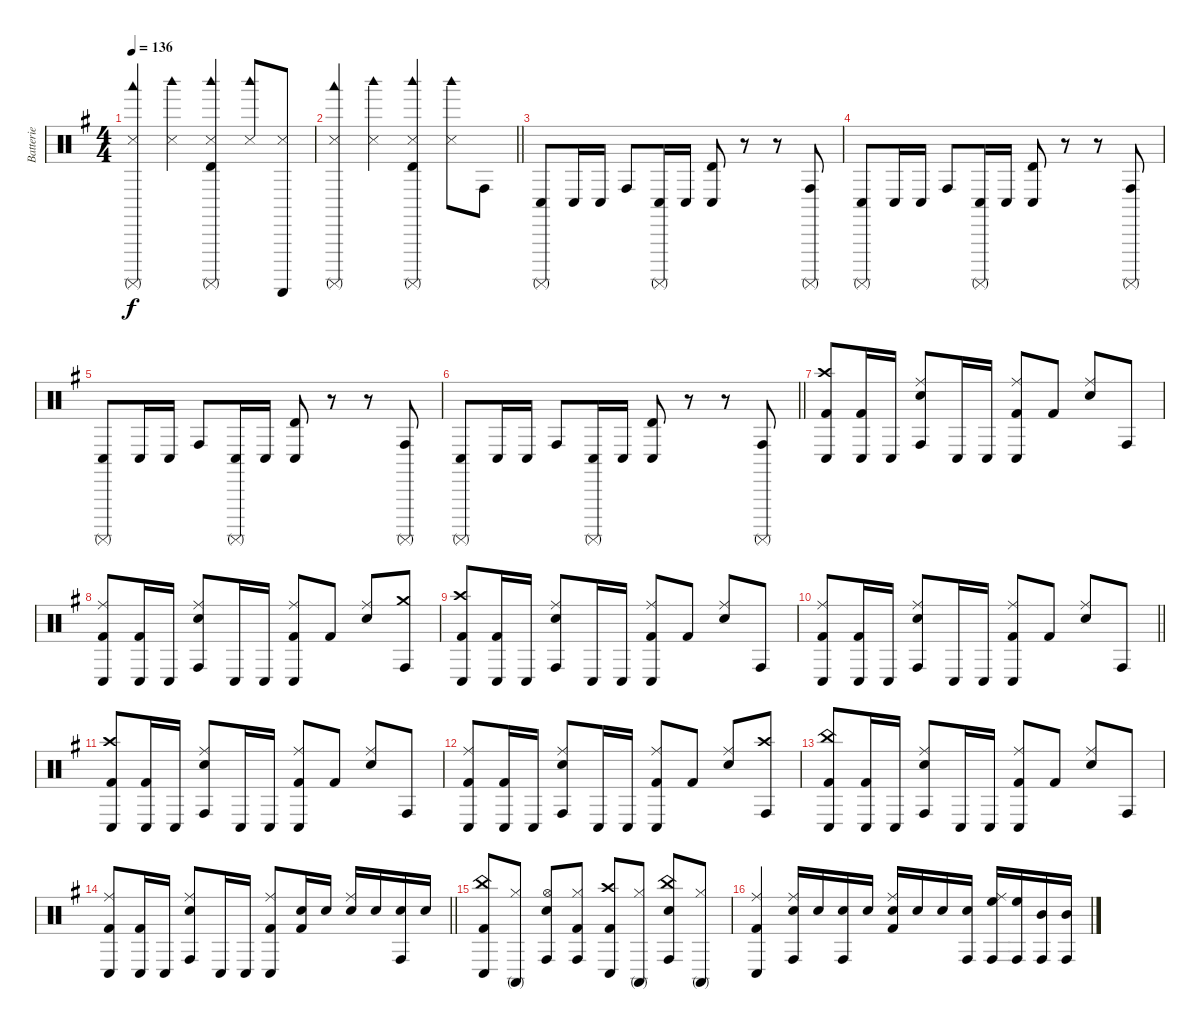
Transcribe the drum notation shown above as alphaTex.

\track ("Batterie" "Batterie") {instrument percussion}
\staff {score}
\articulation defaults
\ts (4 4)
\tempo 136
\clef neutral
\ks g
("Snare (side stick) 3" "Woodblock low (hit)" "Surdo (mute)").4{dy f} ("Snare (side stick) 3" "Woodblock high (hit)").4 ("Snare (side stick) 3" "Woodblock high (hit)" "Timbale high (hit)" "Surdo (mute)").4 ("Snare (side stick) 3" "Woodblock high (hit)").8 ("Snare (side stick) 3" "Guiro (scrap-return)").8 |
\barLineRight lightlight
("Snare (side stick) 3" "Woodblock low (hit)" "Surdo (mute)").4 ("Snare (side stick) 3" "Woodblock high (hit)").4 ("Snare (side stick) 3" "Woodblock high (hit)" "Timbale high (hit)" "Surdo (mute)").4 ("Snare (side stick) 3" "Woodblock high (hit)").8 "Conga high (hit)".8 |
("Conga low (hit)" "Surdo (mute)").8 "Conga low (hit)".16 "Conga low (hit)".16 "Conga high (hit)".8 ("Conga low (hit)" "Surdo (mute)").16 "Conga low (hit)".16 ("Conga low (hit)" "Timbale high (hit)").8 r.8 r.8 ("Conga high (hit)" "Surdo (mute)").8 |
("Conga low (hit)" "Surdo (mute)").8 "Conga low (hit)".16 "Conga low (hit)".16 "Conga high (hit)".8 ("Conga low (hit)" "Surdo (mute)").16 "Conga low (hit)".16 ("Conga low (hit)" "Timbale high (hit)").8 r.8 r.8 ("Conga high (hit)" "Surdo (mute)").8 |
("Conga low (hit)" "Surdo (mute)").8 "Conga low (hit)".16 "Conga low (hit)".16 "Conga high (hit)".8 ("Conga low (hit)" "Surdo (mute)").16 "Conga low (hit)".16 ("Conga low (hit)" "Timbale high (hit)").8 r.8 r.8 ("Conga high (hit)" "Surdo (mute)").8 |
\barLineRight lightlight
("Conga low (hit)" "Surdo (mute)").8 "Conga low (hit)".16 "Conga low (hit)".16 "Conga high (hit)".8 ("Conga low (hit)" "Surdo (mute)").16 "Conga low (hit)".16 ("Conga low (hit)" "Timbale high (hit)").8 r.8 r.8 ("Conga high (hit)" "Surdo (mute)").8 |
("Crash high (hit)" "Conga low (hit)" "Kick (hit) 2").8 ("Conga low (hit)" "Kick (hit) 2").16 "Conga low (hit)".16 ("Ride (middle)" "Conga high (hit)" "Snare (hit) 2").8 "Conga low (hit)".16 "Conga low (hit)".16 ("Ride (middle)" "Conga low (hit)" "Kick (hit) 2").8 "Kick (hit) 2".8 ("Ride (middle)" "Snare (hit) 2").8 "Conga high (hit)".8 |
("Ride (middle)" "Conga low (hit)" "Kick (hit) 2").8 ("Conga low (hit)" "Kick (hit) 2").16 "Conga low (hit)".16 ("Ride (middle)" "Conga high (hit)" "Snare (hit) 2").8 "Conga low (hit)".16 "Conga low (hit)".16 ("Ride (middle)" "Conga low (hit)" "Kick (hit) 2").8 "Kick (hit) 2".8 ("Ride (middle)" "Snare (hit) 2").8 ("Crash medium (hit)" "Conga high (hit)").8 |
("Crash high (hit)" "Conga low (hit)" "Kick (hit) 2").8 ("Conga low (hit)" "Kick (hit) 2").16 "Conga low (hit)".16 ("Ride (middle)" "Conga high (hit)" "Snare (hit) 2").8 "Conga low (hit)".16 "Conga low (hit)".16 ("Ride (middle)" "Conga low (hit)" "Kick (hit) 2").8 "Kick (hit) 2".8 ("Ride (middle)" "Snare (hit) 2").8 "Conga high (hit)".8 |
\barLineRight lightlight
("Ride (middle)" "Conga low (hit)" "Kick (hit) 2").8 ("Conga low (hit)" "Kick (hit) 2").16 "Conga low (hit)".16 ("Ride (middle)" "Conga high (hit)" "Snare (hit) 2").8 "Conga low (hit)".16 "Conga low (hit)".16 ("Ride (middle)" "Conga low (hit)" "Kick (hit) 2").8 "Kick (hit) 2".8 ("Ride (middle)" "Snare (hit) 2").8 "Conga high (hit)".8 |
("Crash high (hit)" "Conga low (hit)" "Kick (hit) 2").8 ("Conga low (hit)" "Kick (hit) 2").16 "Conga low (hit)".16 ("Ride (middle)" "Conga high (hit)" "Snare (hit) 2").8 "Conga low (hit)".16 "Conga low (hit)".16 ("Ride (middle)" "Conga low (hit)" "Kick (hit) 2").8 "Kick (hit) 2".8 ("Ride (middle)" "Snare (hit) 2").8 "Conga high (hit)".8 |
("Ride (middle)" "Conga low (hit)" "Kick (hit) 2").8 ("Conga low (hit)" "Kick (hit) 2").16 "Conga low (hit)".16 ("Ride (middle)" "Conga high (hit)" "Snare (hit) 2").8 "Conga low (hit)".16 "Conga low (hit)".16 ("Ride (middle)" "Conga low (hit)" "Kick (hit) 2").8 "Kick (hit) 2".8 ("Ride (middle)" "Snare (hit) 2").8 ("Crash high (hit)" "Conga high (hit)").8 |
("China (hit)" "Conga low (hit)" "Kick (hit) 2").8 ("Conga low (hit)" "Kick (hit) 2").16 "Conga low (hit)".16 ("Ride (middle)" "Conga high (hit)" "Snare (hit) 2").8 "Conga low (hit)".16 "Conga low (hit)".16 ("Ride (middle)" "Conga low (hit)" "Kick (hit) 2").8 "Kick (hit) 2".8 ("Ride (middle)" "Snare (hit) 2").8 "Conga high (hit)".8 |
\barLineRight lightlight
("Ride (middle)" "Conga low (hit)" "Kick (hit) 2").8 ("Conga low (hit)" "Kick (hit) 2").16 "Conga low (hit)".16 ("Ride (middle)" "Conga high (hit)" "Snare (hit) 2").8 "Conga low (hit)".16 "Conga low (hit)".16 ("Ride (middle)" "Conga low (hit)" "Kick (hit) 2").8 ("Snare (hit) 2" "Kick (hit) 2").16 "Snare (hit) 2".16 ("Ride (middle)" "Snare (hit) 2").16 "Snare (hit) 2".16 ("Conga high (hit)" "Snare (hit) 2").16 "Snare (hit) 2".16 |
("China (hit)" "Conga low (hit)" "Kick (hit) 2").8 ("Hi-Hat (closed)" "Conga high (mute)").8 ("Hi-Hat (open)" "Conga high (hit)" "Snare (hit) 2").8 ("Hi-Hat (closed)" "Conga high (hit)" "Kick (hit) 2").8 ("Crash high (hit)" "Conga low (hit)" "Kick (hit) 2").8 ("Hi-Hat (closed)" "Conga high (mute)").8 ("China (hit)" "Conga high (hit)" "Snare (hit) 2").8 ("Hi-Hat (closed)" "Conga high (mute)").8 |
("Ride (middle)" "Conga low (hit)" "Kick (hit) 2").4 ("Ride (middle)" "Conga high (hit)" "Snare (hit) 2").16 "Snare (hit) 2".16 ("Conga high (hit)" "Snare (hit) 2").16 "Snare (hit) 2".16 ("Ride (middle)" "Snare (hit) 2" "Kick (hit) 2").16 "Snare (hit) 2".16 "Snare (hit) 2".16 ("Conga high (hit)" "Snare (hit) 2").16 ("Ride (middle)" "High Floor Tom (hit)" "Conga high (hit)").16 ("High Floor Tom (hit)" "Conga high (hit)").16 ("Mid Tom (hit)" "Conga high (hit)").16 ("Mid Tom (hit)" "Conga high (hit)").16
